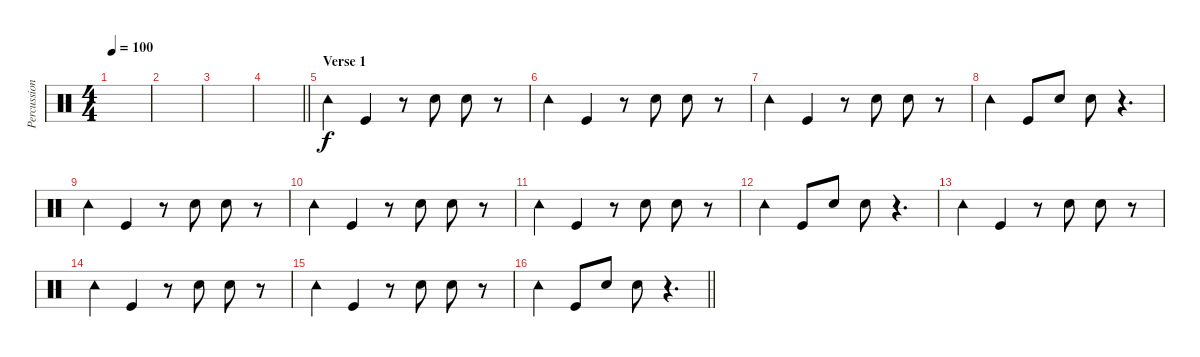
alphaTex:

\track ("Percussion" "Percussion") {instrument percussion}
\staff {score}
\articulation defaults
\ts (4 4)
\tempo 100
\clef neutral
\ks c
|
|
|
\barLineRight lightlight
|
\section ("" "Verse 1")
"Tambourine (hit)".4 "Kick (hit)".4 r.8 "Hand Clap (hit)".8 "Hand Clap (hit)".8 r.8 |
"Tambourine (hit)".4 "Kick (hit)".4 r.8 "Hand Clap (hit)".8 "Hand Clap (hit)".8 r.8 |
"Tambourine (hit)".4 "Kick (hit)".4 r.8 "Hand Clap (hit)".8 "Hand Clap (hit)".8 r.8 |
"Tambourine (hit)".4 "Kick (hit)".8 "Hand Clap (hit)".8 "Hand Clap (hit)".8 r.4{d} |
"Tambourine (hit)".4 "Kick (hit)".4 r.8 "Hand Clap (hit)".8 "Hand Clap (hit)".8 r.8 |
"Tambourine (hit)".4 "Kick (hit)".4 r.8 "Hand Clap (hit)".8 "Hand Clap (hit)".8 r.8 |
"Tambourine (hit)".4 "Kick (hit)".4 r.8 "Hand Clap (hit)".8 "Hand Clap (hit)".8 r.8 |
"Tambourine (hit)".4 "Kick (hit)".8 "Hand Clap (hit)".8 "Hand Clap (hit)".8 r.4{d} |
"Tambourine (hit)".4 "Kick (hit)".4 r.8 "Hand Clap (hit)".8 "Hand Clap (hit)".8 r.8 |
"Tambourine (hit)".4 "Kick (hit)".4 r.8 "Hand Clap (hit)".8 "Hand Clap (hit)".8 r.8 |
"Tambourine (hit)".4 "Kick (hit)".4 r.8 "Hand Clap (hit)".8 "Hand Clap (hit)".8 r.8 |
\barLineRight lightlight "Tambourine (hit)".4 "Kick (hit)".8 "Hand Clap (hit)".8 "Hand Clap (hit)".8
r.4{d}
